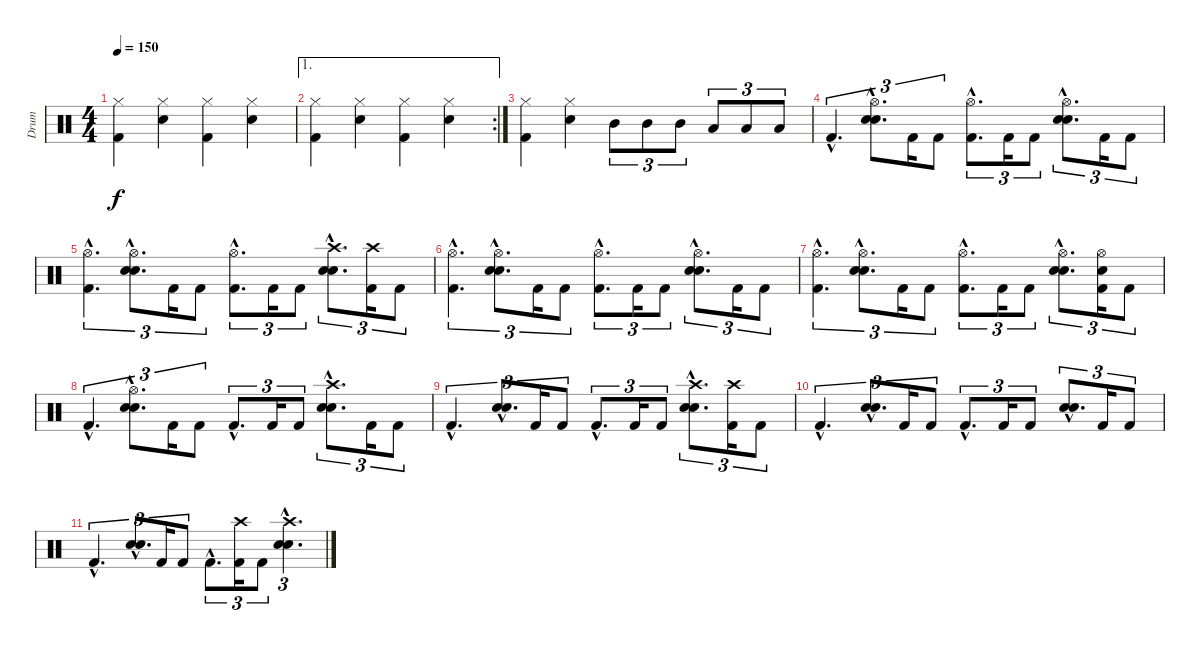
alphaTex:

\track ("Drum" "Drum") {instrument percussion}
\staff {score}
\articulation defaults
\ts (4 4)
\tempo 150
\clef neutral
\ks c
("Kick (hit) 2" "Hi-Hat (closed)").4{dy f} ("Snare (hit) 2" "Hi-Hat (closed)").4 ("Kick (hit) 2" "Hi-Hat (closed)").4 ("Snare (hit) 2" "Hi-Hat (closed)").4 |
\ae 1
\rc 2
("Kick (hit) 2" "Hi-Hat (closed)").4 ("Snare (hit) 2" "Hi-Hat (closed)").4 ("Kick (hit) 2" "Hi-Hat (closed)").4 ("Snare (hit) 2" "Hi-Hat (closed)").4 |
("Kick (hit) 2" "Hi-Hat (closed)").4 ("Snare (hit) 2" "Hi-Hat (closed)").4 "Mid Tom (hit)".8{tu (3 2)} "Mid Tom (hit)".8{tu (3 2)} "Mid Tom (hit)".8{tu (3 2)} "Low Tom (hit)".8{tu (3 2)} "Low Tom (hit)".8{tu (3 2)} "Low Tom (hit)".8{tu (3 2)} |
"Kick (hit) 2"{hac}.4{d tu (3 2)} ("Snare (hit) 2"{hac} "Electric Snare (hit)"{hac} "Hi-Hat (open)"{hac}).8{d tu (3 2)} "Kick (hit) 2".16{tu (3 2)} "Kick (hit) 2".8{tu (3 2)} ("Kick (hit) 2"{hac} "Hi-Hat (open)"{hac}).8{d tu (3 2)} "Kick (hit) 2".16{tu (3 2)} "Kick (hit) 2".8{tu (3 2)} ("Snare (hit) 2"{hac} "Electric Snare (hit)"{hac} "Hi-Hat (open)"{hac}).8{d tu (3 2)} "Kick (hit) 2".16{tu (3 2)} "Kick (hit) 2".8{tu (3 2)} |
("Kick (hit) 2"{hac} "Hi-Hat (open)"{hac}).4{d tu (3 2)} ("Snare (hit) 2"{hac} "Electric Snare (hit)"{hac} "Hi-Hat (open)"{hac}).8{d tu (3 2)} "Kick (hit) 2".16{tu (3 2)} "Kick (hit) 2".8{tu (3 2)} ("Kick (hit) 2"{hac} "Hi-Hat (open)"{hac}).8{d tu (3 2)} "Kick (hit) 2".16{tu (3 2)} "Kick (hit) 2".8{tu (3 2)} ("Snare (hit) 2"{hac} "Electric Snare (hit)"{hac} "Crash high (hit)"{hac}).8{d tu (3 2)} ("Kick (hit) 2" "Crash high (hit)").16{tu (3 2)} "Kick (hit) 2".8{tu (3 2)} |
("Kick (hit) 2"{hac} "Hi-Hat (open)"{hac}).4{d tu (3 2)} ("Snare (hit) 2"{hac} "Electric Snare (hit)"{hac} "Hi-Hat (open)"{hac}).8{d tu (3 2)} "Kick (hit) 2".16{tu (3 2)} "Kick (hit) 2".8{tu (3 2)} ("Kick (hit) 2"{hac} "Hi-Hat (open)"{hac}).8{d tu (3 2)} "Kick (hit) 2".16{tu (3 2)} "Kick (hit) 2".8{tu (3 2)} ("Snare (hit) 2"{hac} "Electric Snare (hit)"{hac} "Hi-Hat (open)"{hac}).8{d tu (3 2)} "Kick (hit) 2".16{tu (3 2)} "Kick (hit) 2".8{tu (3 2)} |
("Kick (hit) 2"{hac} "Hi-Hat (open)"{hac}).4{d tu (3 2)} ("Snare (hit) 2"{hac} "Electric Snare (hit)"{hac} "Hi-Hat (open)"{hac}).8{d tu (3 2)} "Kick (hit) 2".16{tu (3 2)} "Kick (hit) 2".8{tu (3 2)} ("Kick (hit) 2"{hac} "Hi-Hat (open)"{hac}).8{d tu (3 2)} "Kick (hit) 2".16{tu (3 2)} "Kick (hit) 2".8{tu (3 2)} ("Snare (hit) 2"{hac} "Electric Snare (hit)"{hac} "Hi-Hat (open)"{hac}).8{d tu (3 2)} ("Kick (hit) 2" "Electric Snare (hit)" "Hi-Hat (open)").16{tu (3 2)} "Kick (hit) 2".8{tu (3 2)} |
"Kick (hit) 2"{hac}.4{d tu (3 2)} ("Snare (hit) 2"{hac} "Electric Snare (hit)"{hac} "Hi-Hat (open)"{hac}).8{d tu (3 2)} "Kick (hit) 2".16{tu (3 2)} "Kick (hit) 2".8{tu (3 2)} "Kick (hit) 2"{hac}.8{d tu (3 2)} "Kick (hit) 2".16{tu (3 2)} "Kick (hit) 2".8{tu (3 2)} ("Snare (hit) 2"{hac} "Electric Snare (hit)"{hac} "Crash high (hit)"{hac}).8{d tu (3 2)} "Kick (hit) 2".16{tu (3 2)} "Kick (hit) 2".8{tu (3 2)} |
"Kick (hit) 2"{hac}.4{d tu (3 2)} ("Snare (hit) 2"{hac} "Electric Snare (hit)"{hac}).8{d tu (3 2)} "Kick (hit) 2".16{tu (3 2)} "Kick (hit) 2".8{tu (3 2)} "Kick (hit) 2"{hac}.8{d tu (3 2)} "Kick (hit) 2".16{tu (3 2)} "Kick (hit) 2".8{tu (3 2)} ("Snare (hit) 2"{hac} "Electric Snare (hit)"{hac} "Crash high (hit)"{hac}).8{d tu (3 2)} ("Kick (hit) 2" "Crash high (hit)").16{tu (3 2)} "Kick (hit) 2".8{tu (3 2)} |
"Kick (hit) 2"{hac}.4{d tu (3 2)} ("Snare (hit) 2"{hac} "Electric Snare (hit)"{hac}).8{d tu (3 2)} "Kick (hit) 2".16{tu (3 2)} "Kick (hit) 2".8{tu (3 2)} "Kick (hit) 2"{hac}.8{d tu (3 2)} "Kick (hit) 2".16{tu (3 2)} "Kick (hit) 2".8{tu (3 2)} ("Snare (hit) 2"{hac} "Electric Snare (hit)"{hac}).8{d tu (3 2)} "Kick (hit) 2".16{tu (3 2)} "Kick (hit) 2".8{tu (3 2)} |
"Kick (hit) 2"{hac}.4{d tu (3 2)} ("Snare (hit) 2"{hac} "Electric Snare (hit)"{hac}).8{d tu (3 2)} "Kick (hit) 2".16{tu (3 2)} "Kick (hit) 2".8{tu (3 2)} "Kick (hit) 2"{hac}.8{d tu (3 2)} ("Kick (hit) 2" "Crash high (hit)").16{tu (3 2)} "Kick (hit) 2".8{tu (3 2)} ("Snare (hit) 2"{hac} "Electric Snare (hit)"{hac} "Crash high (hit)"{hac}).4{d tu (3 2)}
